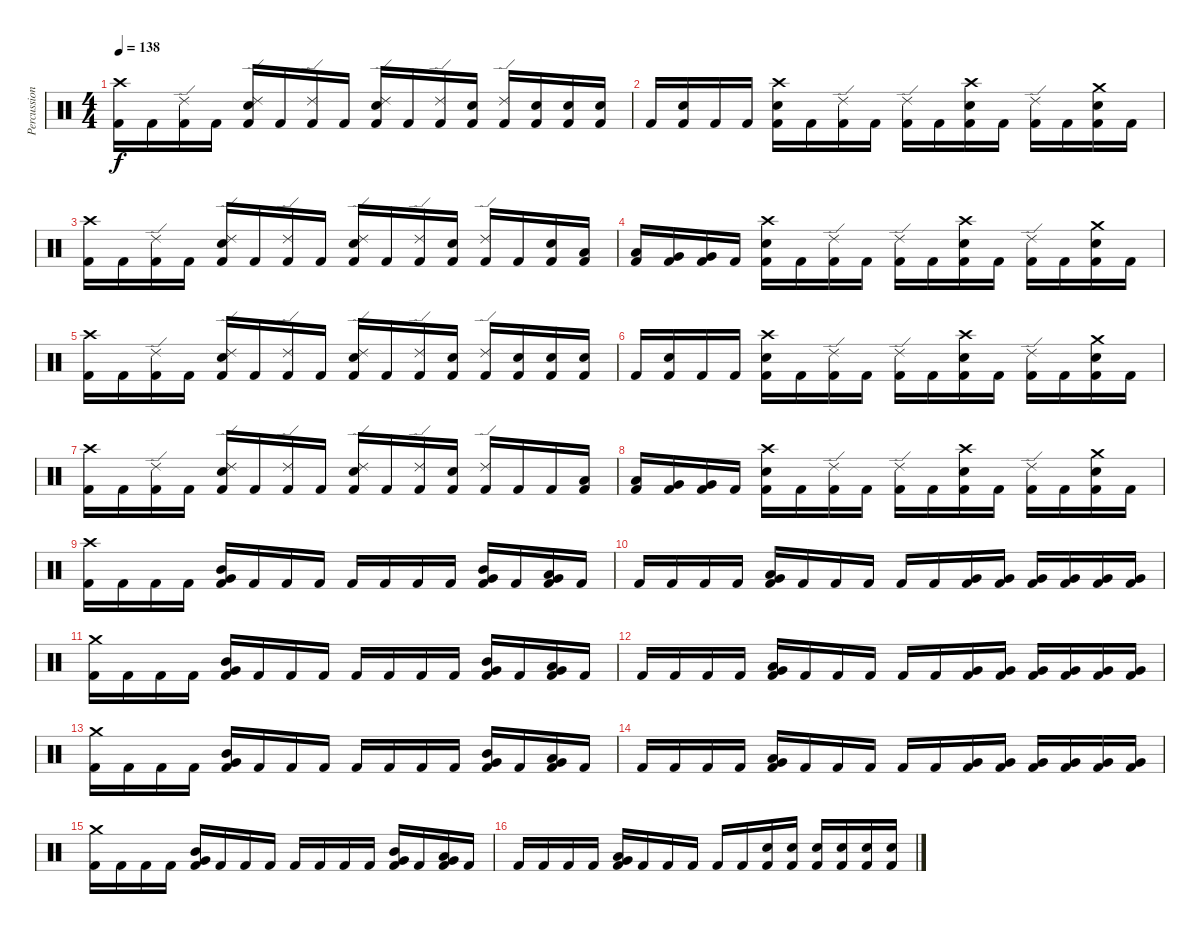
\track ("Percussion" "Percussion") {instrument percussion}
\staff {score}
\articulation defaults
\ts (4 4)
\tempo 138
\clef neutral
\ks c
("Crash high (hit)" "Kick (hit) 2").16{dy f} "Kick (hit) 2".16 ("Ride (edge) 2" "Kick (hit) 2").16 "Kick (hit) 2".16 ("Ride (edge) 2" "Snare (hit) 2" "Kick (hit) 2").16 "Kick (hit) 2".16 ("Ride (edge) 2" "Kick (hit) 2").16 "Kick (hit) 2".16 ("Ride (edge) 2" "Snare (hit) 2" "Kick (hit) 2").16 "Kick (hit) 2".16 ("Ride (edge) 2" "Kick (hit) 2").16 ("Snare (hit) 2" "Kick (hit) 2").16 ("Ride (edge) 2" "Kick (hit) 2").16 ("Snare (hit) 2" "Kick (hit) 2").16 ("Snare (hit) 2" "Kick (hit) 2").16 ("Snare (hit) 2" "Kick (hit) 2").16 |
"Kick (hit) 2".16 ("Snare (hit) 2" "Kick (hit) 2").16 "Kick (hit) 2".16 "Kick (hit) 2".16 ("Crash high (hit)" "Snare (hit) 2" "Kick (hit) 2").16 "Kick (hit) 2".16 ("Ride (edge) 2" "Kick (hit) 2").16 "Kick (hit) 2".16 ("Ride (edge) 2" "Kick (hit) 2").16 "Kick (hit) 2".16 ("Crash high (hit)" "Snare (hit) 2" "Kick (hit) 2").16 "Kick (hit) 2".16 ("Ride (edge) 2" "Kick (hit) 2").16 "Kick (hit) 2".16 ("Crash medium (hit)" "Snare (hit) 2" "Kick (hit) 2").16 "Kick (hit) 2".16 |
("Crash high (hit)" "Kick (hit) 2").16 "Kick (hit) 2".16 ("Ride (edge) 2" "Kick (hit) 2").16 "Kick (hit) 2".16 ("Ride (edge) 2" "Snare (hit) 2" "Kick (hit) 2").16 "Kick (hit) 2".16 ("Ride (edge) 2" "Kick (hit) 2").16 "Kick (hit) 2".16 ("Ride (edge) 2" "Snare (hit) 2" "Kick (hit) 2").16 "Kick (hit) 2".16 ("Ride (edge) 2" "Kick (hit) 2").16 ("Snare (hit) 2" "Kick (hit) 2").16 ("Ride (edge) 2" "Kick (hit) 2").16 "Kick (hit) 2".16 ("Snare (hit) 2" "Kick (hit) 2").16 ("Low Tom (hit)" "Kick (hit) 2").16 |
("Low Tom (hit)" "Kick (hit) 2").16 ("Very Low Tom (hit)" "Kick (hit) 2").16 ("Very Low Tom (hit)" "Kick (hit) 2").16 "Kick (hit) 2".16 ("Crash high (hit)" "Snare (hit) 2" "Kick (hit) 2").16 "Kick (hit) 2".16 ("Ride (edge) 2" "Kick (hit) 2").16 "Kick (hit) 2".16 ("Ride (edge) 2" "Kick (hit) 2").16 "Kick (hit) 2".16 ("Crash high (hit)" "Snare (hit) 2" "Kick (hit) 2").16 "Kick (hit) 2".16 ("Ride (edge) 2" "Kick (hit) 2").16 "Kick (hit) 2".16 ("Crash medium (hit)" "Snare (hit) 2" "Kick (hit) 2").16 "Kick (hit) 2".16 |
("Crash high (hit)" "Kick (hit) 2").16 "Kick (hit) 2".16 ("Ride (edge) 2" "Kick (hit) 2").16 "Kick (hit) 2".16 ("Ride (edge) 2" "Snare (hit) 2" "Kick (hit) 2").16 "Kick (hit) 2".16 ("Ride (edge) 2" "Kick (hit) 2").16 "Kick (hit) 2".16 ("Ride (edge) 2" "Snare (hit) 2" "Kick (hit) 2").16 "Kick (hit) 2".16 ("Ride (edge) 2" "Kick (hit) 2").16 ("Snare (hit) 2" "Kick (hit) 2").16 ("Ride (edge) 2" "Kick (hit) 2").16 ("Snare (hit) 2" "Kick (hit) 2").16 ("Snare (hit) 2" "Kick (hit) 2").16 ("Snare (hit) 2" "Kick (hit) 2").16 |
"Kick (hit) 2".16 ("Snare (hit) 2" "Kick (hit) 2").16 "Kick (hit) 2".16 "Kick (hit) 2".16 ("Crash high (hit)" "Snare (hit) 2" "Kick (hit) 2").16 "Kick (hit) 2".16 ("Ride (edge) 2" "Kick (hit) 2").16 "Kick (hit) 2".16 ("Ride (edge) 2" "Kick (hit) 2").16 "Kick (hit) 2".16 ("Crash high (hit)" "Snare (hit) 2" "Kick (hit) 2").16 "Kick (hit) 2".16 ("Ride (edge) 2" "Kick (hit) 2").16 "Kick (hit) 2".16 ("Crash medium (hit)" "Snare (hit) 2" "Kick (hit) 2").16 "Kick (hit) 2".16 |
("Crash high (hit)" "Kick (hit) 2").16 "Kick (hit) 2".16 ("Ride (edge) 2" "Kick (hit) 2").16 "Kick (hit) 2".16 ("Ride (edge) 2" "Snare (hit) 2" "Kick (hit) 2").16 "Kick (hit) 2".16 ("Ride (edge) 2" "Kick (hit) 2").16 "Kick (hit) 2".16 ("Ride (edge) 2" "Snare (hit) 2" "Kick (hit) 2").16 "Kick (hit) 2".16 ("Ride (edge) 2" "Kick (hit) 2").16 ("Snare (hit) 2" "Kick (hit) 2").16 ("Ride (edge) 2" "Kick (hit) 2").16 "Kick (hit) 2".16 "Kick (hit) 2".16 ("Low Tom (hit)" "Kick (hit) 2").16 |
("Low Tom (hit)" "Kick (hit) 2").16 ("Very Low Tom (hit)" "Kick (hit) 2").16 ("Very Low Tom (hit)" "Kick (hit) 2").16 "Kick (hit) 2".16 ("Crash high (hit)" "Snare (hit) 2" "Kick (hit) 2").16 "Kick (hit) 2".16 ("Ride (edge) 2" "Kick (hit) 2").16 "Kick (hit) 2".16 ("Ride (edge) 2" "Kick (hit) 2").16 "Kick (hit) 2".16 ("Crash high (hit)" "Snare (hit) 2" "Kick (hit) 2").16 "Kick (hit) 2".16 ("Ride (edge) 2" "Kick (hit) 2").16 "Kick (hit) 2".16 ("Crash medium (hit)" "Snare (hit) 2" "Kick (hit) 2").16 "Kick (hit) 2".16 |
("Crash high (hit)" "Kick (hit) 2").16 "Kick (hit) 2".16 "Kick (hit) 2".16 "Kick (hit) 2".16 ("Mid Tom (hit)" "Very Low Tom (hit)" "Kick (hit) 2").16 "Kick (hit) 2".16 "Kick (hit) 2".16 "Kick (hit) 2".16 "Kick (hit) 2".16 "Kick (hit) 2".16 "Kick (hit) 2".16 "Kick (hit) 2".16 ("Mid Tom (hit)" "Very Low Tom (hit)" "Kick (hit) 2").16 "Kick (hit) 2".16 ("Low Tom (hit)" "Very Low Tom (hit)" "Kick (hit) 2").16 "Kick (hit) 2".16 |
"Kick (hit) 2".16 "Kick (hit) 2".16 "Kick (hit) 2".16 "Kick (hit) 2".16 ("Low Tom (hit)" "Very Low Tom (hit)" "Kick (hit) 2").16 "Kick (hit) 2".16 "Kick (hit) 2".16 "Kick (hit) 2".16 "Kick (hit) 2".16 "Kick (hit) 2".16 ("Very Low Tom (hit)" "Kick (hit) 2").16 ("Very Low Tom (hit)" "Kick (hit) 2").16 ("Very Low Tom (hit)" "Kick (hit) 2").16 ("Very Low Tom (hit)" "Kick (hit) 2").16 ("Very Low Tom (hit)" "Kick (hit) 2").16 ("Very Low Tom (hit)" "Kick (hit) 2").16 |
("Crash medium (hit)" "Kick (hit) 2").16 "Kick (hit) 2".16 "Kick (hit) 2".16 "Kick (hit) 2".16 ("Mid Tom (hit)" "Very Low Tom (hit)" "Kick (hit) 2").16 "Kick (hit) 2".16 "Kick (hit) 2".16 "Kick (hit) 2".16 "Kick (hit) 2".16 "Kick (hit) 2".16 "Kick (hit) 2".16 "Kick (hit) 2".16 ("Mid Tom (hit)" "Very Low Tom (hit)" "Kick (hit) 2").16 "Kick (hit) 2".16 ("Low Tom (hit)" "Very Low Tom (hit)" "Kick (hit) 2").16 "Kick (hit) 2".16 |
"Kick (hit) 2".16 "Kick (hit) 2".16 "Kick (hit) 2".16 "Kick (hit) 2".16 ("Low Tom (hit)" "Very Low Tom (hit)" "Kick (hit) 2").16 "Kick (hit) 2".16 "Kick (hit) 2".16 "Kick (hit) 2".16 "Kick (hit) 2".16 "Kick (hit) 2".16 ("Very Low Tom (hit)" "Kick (hit) 2").16 ("Very Low Tom (hit)" "Kick (hit) 2").16 ("Very Low Tom (hit)" "Kick (hit) 2").16 ("Very Low Tom (hit)" "Kick (hit) 2").16 ("Very Low Tom (hit)" "Kick (hit) 2").16 ("Very Low Tom (hit)" "Kick (hit) 2").16 |
("Crash medium (hit)" "Kick (hit) 2").16 "Kick (hit) 2".16 "Kick (hit) 2".16 "Kick (hit) 2".16 ("Mid Tom (hit)" "Very Low Tom (hit)" "Kick (hit) 2").16 "Kick (hit) 2".16 "Kick (hit) 2".16 "Kick (hit) 2".16 "Kick (hit) 2".16 "Kick (hit) 2".16 "Kick (hit) 2".16 "Kick (hit) 2".16 ("Mid Tom (hit)" "Very Low Tom (hit)" "Kick (hit) 2").16 "Kick (hit) 2".16 ("Low Tom (hit)" "Very Low Tom (hit)" "Kick (hit) 2").16 "Kick (hit) 2".16 |
"Kick (hit) 2".16 "Kick (hit) 2".16 "Kick (hit) 2".16 "Kick (hit) 2".16 ("Low Tom (hit)" "Very Low Tom (hit)" "Kick (hit) 2").16 "Kick (hit) 2".16 "Kick (hit) 2".16 "Kick (hit) 2".16 "Kick (hit) 2".16 "Kick (hit) 2".16 ("Very Low Tom (hit)" "Kick (hit) 2").16 ("Very Low Tom (hit)" "Kick (hit) 2").16 ("Very Low Tom (hit)" "Kick (hit) 2").16 ("Very Low Tom (hit)" "Kick (hit) 2").16 ("Very Low Tom (hit)" "Kick (hit) 2").16 ("Very Low Tom (hit)" "Kick (hit) 2").16 |
("Crash medium (hit)" "Kick (hit) 2").16 "Kick (hit) 2".16 "Kick (hit) 2".16 "Kick (hit) 2".16 ("Mid Tom (hit)" "Very Low Tom (hit)" "Kick (hit) 2").16 "Kick (hit) 2".16 "Kick (hit) 2".16 "Kick (hit) 2".16 "Kick (hit) 2".16 "Kick (hit) 2".16 "Kick (hit) 2".16 "Kick (hit) 2".16 ("Mid Tom (hit)" "Very Low Tom (hit)" "Kick (hit) 2").16 "Kick (hit) 2".16 ("Low Tom (hit)" "Very Low Tom (hit)" "Kick (hit) 2").16 "Kick (hit) 2".16 |
"Kick (hit) 2".16 "Kick (hit) 2".16 "Kick (hit) 2".16 "Kick (hit) 2".16 ("Low Tom (hit)" "Very Low Tom (hit)" "Kick (hit) 2").16 "Kick (hit) 2".16 "Kick (hit) 2".16 "Kick (hit) 2".16 "Kick (hit) 2".16 "Kick (hit) 2".16 ("Snare (hit) 2" "Kick (hit) 2").16 ("Snare (hit) 2" "Kick (hit) 2").16 ("Snare (hit) 2" "Kick (hit) 2").16 ("Snare (hit) 2" "Kick (hit) 2").16 ("Snare (hit) 2" "Kick (hit) 2").16 ("Snare (hit) 2" "Kick (hit) 2").16
